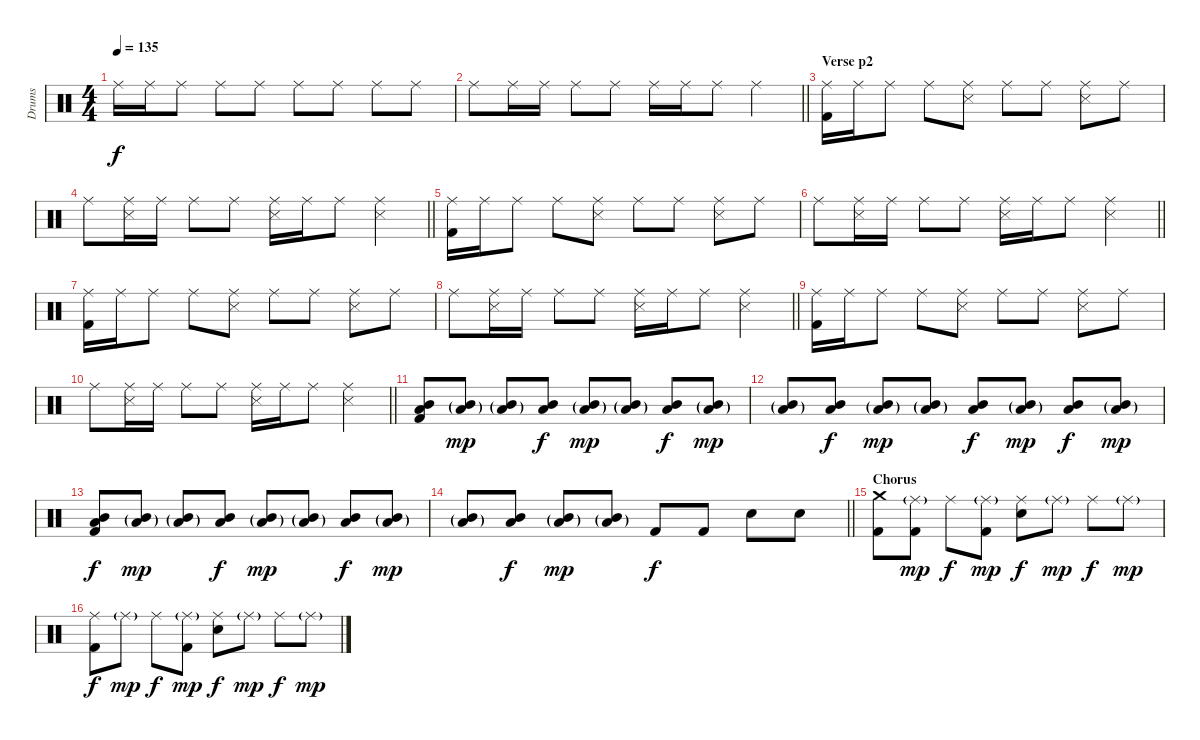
\track ("Drums" "Drums") {instrument percussion}
\staff {score}
\articulation defaults
\ts (4 4)
\tempo 135
\clef neutral
\ks c "Ride (middle)".16{dy f} "Ride (middle)".16 "Ride (middle)".8 "Ride (middle)".8 "Ride (middle)".8 "Ride (middle)".8 "Ride (middle)".8 "Ride (middle)".8 "Ride (middle)".8
|
\barLineRight lightlight "Ride (middle)".8 "Ride (middle)".16 "Ride (middle)".16 "Ride (middle)".8 "Ride (middle)".8 "Ride (middle)".16 "Ride (middle)".16 "Ride (middle)".8 "Ride (middle)".4
|
\section ("" "Verse p2")
("Ride (middle)" "Kick (hit) 2").16 "Ride (middle)".16 "Ride (middle)".8 "Ride (middle)".8 ("Ride (middle)" "Snare (side stick) 3").8 "Ride (middle)".8 "Ride (middle)".8 ("Ride (middle)" "Snare (side stick) 3").8 "Ride (middle)".8 |
\barLineRight lightlight "Ride (middle)".8
("Ride (middle)" "Snare (side stick) 3").16 "Ride (middle)".16 "Ride (middle)".8 "Ride (middle)".8 ("Ride (middle)" "Snare (side stick) 3").16 "Ride (middle)".16 "Ride (middle)".8 ("Ride (middle)" "Snare (side stick) 3").4 |
("Ride (middle)" "Kick (hit) 2").16 "Ride (middle)".16 "Ride (middle)".8 "Ride (middle)".8 ("Ride (middle)" "Snare (side stick) 3").8 "Ride (middle)".8 "Ride (middle)".8 ("Ride (middle)" "Snare (side stick) 3").8 "Ride (middle)".8 |
\barLineRight lightlight "Ride (middle)".8
("Ride (middle)" "Snare (side stick) 3").16 "Ride (middle)".16 "Ride (middle)".8 "Ride (middle)".8 ("Ride (middle)" "Snare (side stick) 3").16 "Ride (middle)".16 "Ride (middle)".8 ("Ride (middle)" "Snare (side stick) 3").4 |
("Ride (middle)" "Kick (hit) 2").16 "Ride (middle)".16 "Ride (middle)".8 "Ride (middle)".8 ("Ride (middle)" "Snare (side stick) 3").8 "Ride (middle)".8 "Ride (middle)".8 ("Ride (middle)" "Snare (side stick) 3").8 "Ride (middle)".8 |
\barLineRight lightlight "Ride (middle)".8
("Ride (middle)" "Snare (side stick) 3").16 "Ride (middle)".16 "Ride (middle)".8 "Ride (middle)".8 ("Ride (middle)" "Snare (side stick) 3").16 "Ride (middle)".16 "Ride (middle)".8 ("Ride (middle)" "Snare (side stick) 3").4 |
("Ride (middle)" "Kick (hit) 2").16 "Ride (middle)".16 "Ride (middle)".8 "Ride (middle)".8 ("Ride (middle)" "Snare (side stick) 3").8 "Ride (middle)".8 "Ride (middle)".8 ("Ride (middle)" "Snare (side stick) 3").8 "Ride (middle)".8 |
\barLineRight lightlight "Ride (middle)".8
("Ride (middle)" "Snare (side stick) 3").16 "Ride (middle)".16 "Ride (middle)".8 "Ride (middle)".8 ("Ride (middle)" "Snare (side stick) 3").16 "Ride (middle)".16 "Ride (middle)".8 ("Ride (middle)" "Snare (side stick) 3").4 |
\section ("" "")
("Mid Tom (hit)" "Low Tom (hit)" "Kick (hit) 2").8 ("Mid Tom (hit)"{g} "Low Tom (hit)"{g}).8{dy mp} ("Mid Tom (hit)"{g} "Low Tom (hit)"{g}).8 ("Mid Tom (hit)" "Low Tom (hit)").8{dy f} ("Mid Tom (hit)"{g} "Low Tom (hit)"{g}).8{dy mp} ("Mid Tom (hit)"{g} "Low Tom (hit)"{g}).8 ("Mid Tom (hit)" "Low Tom (hit)").8{dy f} ("Mid Tom (hit)"{g} "Low Tom (hit)"{g}).8{dy mp} |
("Mid Tom (hit)"{g} "Low Tom (hit)"{g}).8 ("Mid Tom (hit)" "Low Tom (hit)").8{dy f} ("Mid Tom (hit)"{g} "Low Tom (hit)"{g}).8{dy mp} ("Mid Tom (hit)"{g} "Low Tom (hit)"{g}).8 ("Mid Tom (hit)" "Low Tom (hit)").8{dy f} ("Mid Tom (hit)"{g} "Low Tom (hit)"{g}).8{dy mp} ("Mid Tom (hit)" "Low Tom (hit)").8{dy f} ("Mid Tom (hit)"{g} "Low Tom (hit)"{g}).8{dy mp} |
("Mid Tom (hit)" "Low Tom (hit)" "Kick (hit) 2").8{dy f} ("Mid Tom (hit)"{g} "Low Tom (hit)"{g}).8{dy mp} ("Mid Tom (hit)"{g} "Low Tom (hit)"{g}).8 ("Mid Tom (hit)" "Low Tom (hit)").8{dy f} ("Mid Tom (hit)"{g} "Low Tom (hit)"{g}).8{dy mp} ("Mid Tom (hit)"{g} "Low Tom (hit)"{g}).8 ("Mid Tom (hit)" "Low Tom (hit)").8{dy f} ("Mid Tom (hit)"{g} "Low Tom (hit)"{g}).8{dy mp} |
\barLineRight lightlight
("Mid Tom (hit)"{g} "Low Tom (hit)"{g}).8 ("Mid Tom (hit)" "Low Tom (hit)").8{dy f} ("Mid Tom (hit)"{g} "Low Tom (hit)"{g}).8{dy mp} ("Mid Tom (hit)"{g} "Low Tom (hit)"{g}).8 "Kick (hit) 2".8{dy f} "Kick (hit) 2".8 "Electric Snare (hit)".8 "Electric Snare (hit)".8 |
\section ("" "Chorus")
("Crash medium (hit)" "Kick (hit) 2").8 ("Ride (middle)"{g} "Kick (hit) 2").8{dy mp} "Ride (middle)".8{dy f} ("Ride (middle)"{g} "Kick (hit) 2").8{dy mp} ("Ride (middle)" "Electric Snare (hit)").8{dy f} "Ride (middle)"{g}.8{dy mp} "Ride (middle)".8{dy f} "Ride (middle)"{g}.8{dy mp} |
("Kick (hit) 2" "Ride (middle)").8{dy f} "Ride (middle)"{g}.8{dy mp} "Ride (middle)".8{dy f} ("Kick (hit) 2" "Ride (middle)"{g}).8{dy mp} ("Electric Snare (hit)" "Ride (middle)").8{dy f} "Ride (middle)"{g}.8{dy mp} "Ride (middle)".8{dy f} "Ride (middle)"{g}.8{dy mp}
